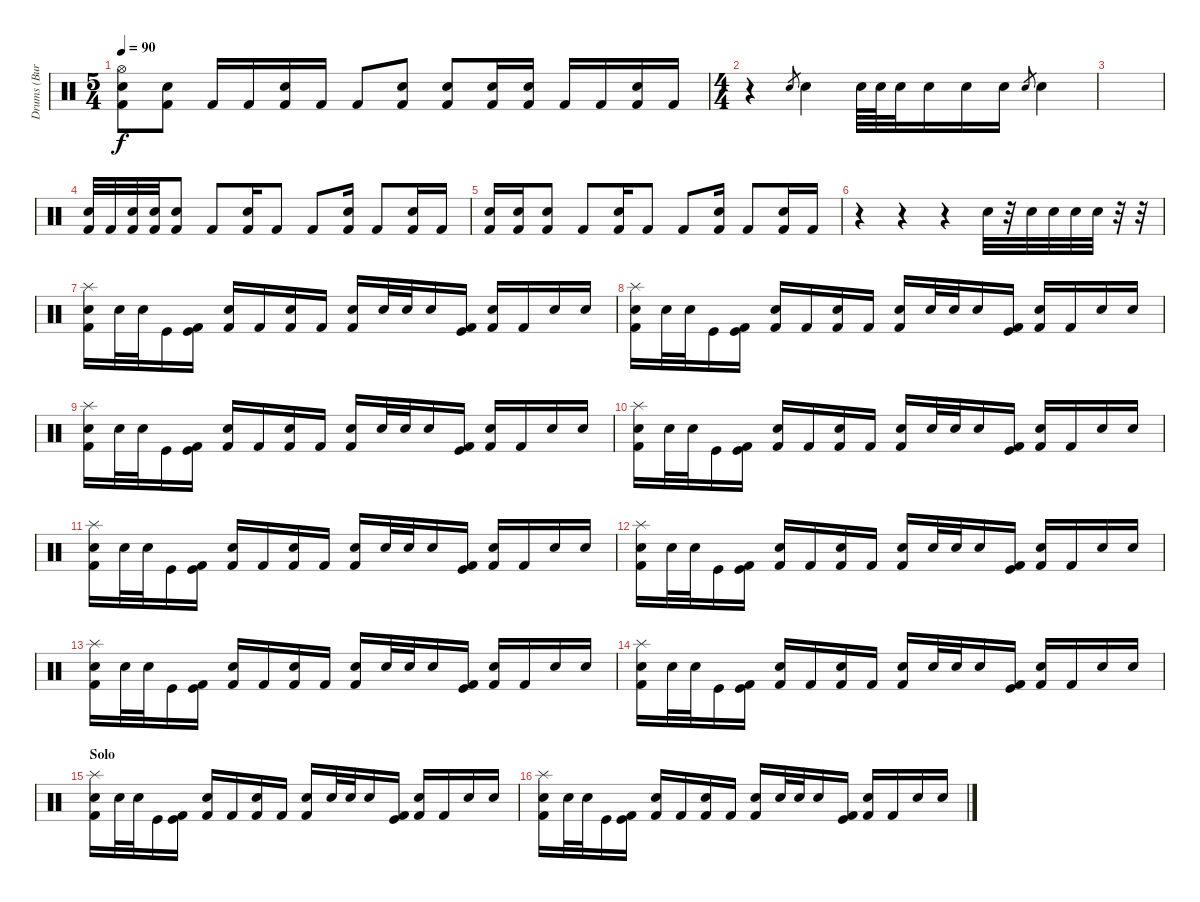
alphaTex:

\track ("Drums (Burnz)" "Drums (Bur") {instrument percussion}
\staff {score}
\articulation defaults
\ts (5 4)
\tempo 90
\clef neutral
\ks c
("Hi-Hat (open)" "Electric Snare (hit)" "Kick (hit) 2").8{dy f} ("Electric Snare (hit)" "Kick (hit) 2").8 "Kick (hit) 2".16 "Kick (hit) 2".16 ("Electric Snare (hit)" "Kick (hit) 2").16 "Kick (hit) 2".16 "Kick (hit) 2".8 ("Electric Snare (hit)" "Kick (hit) 2").8 ("Electric Snare (hit)" "Kick (hit) 2").8 ("Electric Snare (hit)" "Kick (hit) 2").16 ("Electric Snare (hit)" "Kick (hit) 2").16 "Kick (hit) 2".16 "Kick (hit) 2".16 ("Electric Snare (hit)" "Kick (hit) 2").16 "Kick (hit) 2".16 |
\ts (4 4)
r.4 "Snare (hit) 2".8{gr} "Snare (hit) 2".4 "Electric Snare (hit)".64 "Electric Snare (hit)".64 "Electric Snare (hit)".32 "Electric Snare (hit)".16 "Electric Snare (hit)".16 "Electric Snare (hit)".16 "Snare (hit) 2".8{gr} "Snare (hit) 2".4 |
|
("Electric Snare (hit)" "Kick (hit) 2").32 "Kick (hit) 2".32 ("Electric Snare (hit)" "Kick (hit) 2").32 ("Electric Snare (hit)" "Kick (hit) 2").32 ("Electric Snare (hit)" "Kick (hit) 2").8 "Kick (hit) 2".8 ("Electric Snare (hit)" "Kick (hit) 2").16 "Kick (hit) 2".8 "Kick (hit) 2".8 ("Electric Snare (hit)" "Kick (hit) 2").16 "Kick (hit) 2".8 ("Electric Snare (hit)" "Kick (hit) 2").16 "Kick (hit) 2".16 |
("Electric Snare (hit)" "Kick (hit) 2").16 ("Electric Snare (hit)" "Kick (hit) 2").16 ("Electric Snare (hit)" "Kick (hit) 2").8 "Kick (hit) 2".8 ("Electric Snare (hit)" "Kick (hit) 2").16 "Kick (hit) 2".8 "Kick (hit) 2".8 ("Electric Snare (hit)" "Kick (hit) 2").16 "Kick (hit) 2".8 ("Electric Snare (hit)" "Kick (hit) 2").16 "Kick (hit) 2".16 |
r.4 r.4 r.4 "Electric Snare (hit)".32 r.32 "Electric Snare (hit)".32 "Electric Snare (hit)".32 "Electric Snare (hit)".32 "Electric Snare (hit)".32 r.32 r.32 |
("Splash (hit)" "Kick (hit) 2" "Electric Snare (hit)").16 "Electric Snare (hit)".32 "Electric Snare (hit)".32 "Kick (hit)".16 ("Kick (hit)" "Kick (hit) 2").16 ("Electric Snare (hit)" "Kick (hit) 2").16 "Kick (hit) 2".16 ("Electric Snare (hit)" "Kick (hit) 2").16 "Kick (hit) 2".16 ("Kick (hit) 2" "Electric Snare (hit)").16 "Electric Snare (hit)".32 "Electric Snare (hit)".32 "Snare (hit) 2".16 ("Kick (hit)" "Kick (hit) 2").16 ("Electric Snare (hit)" "Kick (hit) 2").16 "Kick (hit) 2".16 "Electric Snare (hit)".16 "Electric Snare (hit)".16 |
("Splash (hit)" "Kick (hit) 2" "Electric Snare (hit)").16 "Electric Snare (hit)".32 "Electric Snare (hit)".32 "Kick (hit)".16 ("Kick (hit)" "Kick (hit) 2").16 ("Electric Snare (hit)" "Kick (hit) 2").16 "Kick (hit) 2".16 ("Electric Snare (hit)" "Kick (hit) 2").16 "Kick (hit) 2".16 ("Kick (hit) 2" "Electric Snare (hit)").16 "Electric Snare (hit)".32 "Electric Snare (hit)".32 "Snare (hit) 2".16 ("Kick (hit)" "Kick (hit) 2").16 ("Electric Snare (hit)" "Kick (hit) 2").16 "Kick (hit) 2".16 "Electric Snare (hit)".16 "Electric Snare (hit)".16 |
("Splash (hit)" "Kick (hit) 2" "Electric Snare (hit)").16 "Electric Snare (hit)".32 "Electric Snare (hit)".32 "Kick (hit)".16 ("Kick (hit)" "Kick (hit) 2").16 ("Electric Snare (hit)" "Kick (hit) 2").16 "Kick (hit) 2".16 ("Electric Snare (hit)" "Kick (hit) 2").16 "Kick (hit) 2".16 ("Kick (hit) 2" "Electric Snare (hit)").16 "Electric Snare (hit)".32 "Electric Snare (hit)".32 "Snare (hit) 2".16 ("Kick (hit)" "Kick (hit) 2").16 ("Electric Snare (hit)" "Kick (hit) 2").16 "Kick (hit) 2".16 "Electric Snare (hit)".16 "Electric Snare (hit)".16 |
("Splash (hit)" "Kick (hit) 2" "Electric Snare (hit)").16 "Electric Snare (hit)".32 "Electric Snare (hit)".32 "Kick (hit)".16 ("Kick (hit)" "Kick (hit) 2").16 ("Electric Snare (hit)" "Kick (hit) 2").16 "Kick (hit) 2".16 ("Electric Snare (hit)" "Kick (hit) 2").16 "Kick (hit) 2".16 ("Kick (hit) 2" "Electric Snare (hit)").16 "Electric Snare (hit)".32 "Electric Snare (hit)".32 "Snare (hit) 2".16 ("Kick (hit)" "Kick (hit) 2").16 ("Electric Snare (hit)" "Kick (hit) 2").16 "Kick (hit) 2".16 "Electric Snare (hit)".16 "Electric Snare (hit)".16 |
("Splash (hit)" "Kick (hit) 2" "Electric Snare (hit)").16 "Electric Snare (hit)".32 "Electric Snare (hit)".32 "Kick (hit)".16 ("Kick (hit)" "Kick (hit) 2").16 ("Electric Snare (hit)" "Kick (hit) 2").16 "Kick (hit) 2".16 ("Electric Snare (hit)" "Kick (hit) 2").16 "Kick (hit) 2".16 ("Kick (hit) 2" "Electric Snare (hit)").16 "Electric Snare (hit)".32 "Electric Snare (hit)".32 "Snare (hit) 2".16 ("Kick (hit)" "Kick (hit) 2").16 ("Electric Snare (hit)" "Kick (hit) 2").16 "Kick (hit) 2".16 "Electric Snare (hit)".16 "Electric Snare (hit)".16 |
("Splash (hit)" "Kick (hit) 2" "Electric Snare (hit)").16 "Electric Snare (hit)".32 "Electric Snare (hit)".32 "Kick (hit)".16 ("Kick (hit)" "Kick (hit) 2").16 ("Electric Snare (hit)" "Kick (hit) 2").16 "Kick (hit) 2".16 ("Electric Snare (hit)" "Kick (hit) 2").16 "Kick (hit) 2".16 ("Kick (hit) 2" "Electric Snare (hit)").16 "Electric Snare (hit)".32 "Electric Snare (hit)".32 "Snare (hit) 2".16 ("Kick (hit)" "Kick (hit) 2").16 ("Electric Snare (hit)" "Kick (hit) 2").16 "Kick (hit) 2".16 "Electric Snare (hit)".16 "Electric Snare (hit)".16 |
("Splash (hit)" "Kick (hit) 2" "Electric Snare (hit)").16 "Electric Snare (hit)".32 "Electric Snare (hit)".32 "Kick (hit)".16 ("Kick (hit)" "Kick (hit) 2").16 ("Electric Snare (hit)" "Kick (hit) 2").16 "Kick (hit) 2".16 ("Electric Snare (hit)" "Kick (hit) 2").16 "Kick (hit) 2".16 ("Kick (hit) 2" "Electric Snare (hit)").16 "Electric Snare (hit)".32 "Electric Snare (hit)".32 "Snare (hit) 2".16 ("Kick (hit)" "Kick (hit) 2").16 ("Electric Snare (hit)" "Kick (hit) 2").16 "Kick (hit) 2".16 "Electric Snare (hit)".16 "Electric Snare (hit)".16 |
("Splash (hit)" "Kick (hit) 2" "Electric Snare (hit)").16 "Electric Snare (hit)".32 "Electric Snare (hit)".32 "Kick (hit)".16 ("Kick (hit)" "Kick (hit) 2").16 ("Electric Snare (hit)" "Kick (hit) 2").16 "Kick (hit) 2".16 ("Electric Snare (hit)" "Kick (hit) 2").16 "Kick (hit) 2".16 ("Kick (hit) 2" "Electric Snare (hit)").16 "Electric Snare (hit)".32 "Electric Snare (hit)".32 "Snare (hit) 2".16 ("Kick (hit)" "Kick (hit) 2").16 ("Electric Snare (hit)" "Kick (hit) 2").16 "Kick (hit) 2".16 "Electric Snare (hit)".16 "Electric Snare (hit)".16 |
\section ("" "Solo")
("Splash (hit)" "Kick (hit) 2" "Electric Snare (hit)").16 "Electric Snare (hit)".32 "Electric Snare (hit)".32 "Kick (hit)".16 ("Kick (hit)" "Kick (hit) 2").16 ("Electric Snare (hit)" "Kick (hit) 2").16 "Kick (hit) 2".16 ("Electric Snare (hit)" "Kick (hit) 2").16 "Kick (hit) 2".16 ("Kick (hit) 2" "Electric Snare (hit)").16 "Electric Snare (hit)".32 "Electric Snare (hit)".32 "Snare (hit) 2".16 ("Kick (hit)" "Kick (hit) 2").16 ("Electric Snare (hit)" "Kick (hit) 2").16 "Kick (hit) 2".16 "Electric Snare (hit)".16 "Electric Snare (hit)".16 |
("Splash (hit)" "Kick (hit) 2" "Electric Snare (hit)").16 "Electric Snare (hit)".32 "Electric Snare (hit)".32 "Kick (hit)".16 ("Kick (hit)" "Kick (hit) 2").16 ("Electric Snare (hit)" "Kick (hit) 2").16 "Kick (hit) 2".16 ("Electric Snare (hit)" "Kick (hit) 2").16 "Kick (hit) 2".16 ("Kick (hit) 2" "Electric Snare (hit)").16 "Electric Snare (hit)".32 "Electric Snare (hit)".32 "Snare (hit) 2".16 ("Kick (hit)" "Kick (hit) 2").16 ("Electric Snare (hit)" "Kick (hit) 2").16 "Kick (hit) 2".16 "Electric Snare (hit)".16 "Electric Snare (hit)".16
